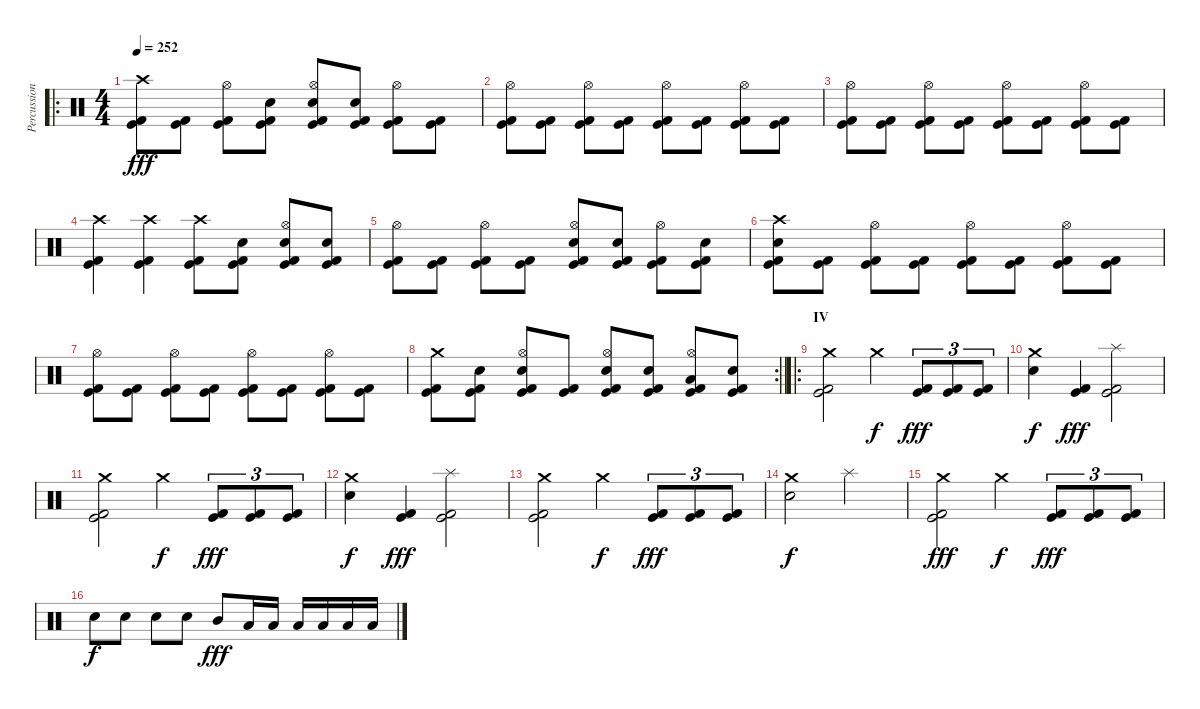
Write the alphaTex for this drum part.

\track ("Percussion" "Percussion") {mute instrument percussion}
\staff {score}
\articulation defaults
\ro
\ts (4 4)
\tempo 252
\clef neutral
\ks c
("Crash high (hit)" "Kick (hit)" "Kick (hit) 2").8{dy fff} ("Kick (hit)" "Kick (hit) 2").8 ("Hi-Hat (open)" "Kick (hit)" "Kick (hit) 2").8 ("Electric Snare (hit)" "Kick (hit)" "Kick (hit) 2").8 ("Hi-Hat (open)" "Electric Snare (hit)" "Kick (hit)" "Kick (hit) 2").8 ("Electric Snare (hit)" "Kick (hit)" "Kick (hit) 2").8 ("Hi-Hat (open)" "Kick (hit)" "Kick (hit) 2").8 ("Kick (hit)" "Kick (hit) 2").8 |
("Hi-Hat (open)" "Kick (hit)" "Kick (hit) 2").8 ("Kick (hit)" "Kick (hit) 2").8 ("Hi-Hat (open)" "Kick (hit)" "Kick (hit) 2").8 ("Kick (hit)" "Kick (hit) 2").8 ("Hi-Hat (open)" "Kick (hit)" "Kick (hit) 2").8 ("Kick (hit)" "Kick (hit) 2").8 ("Hi-Hat (open)" "Kick (hit)" "Kick (hit) 2").8 ("Kick (hit)" "Kick (hit) 2").8 |
("Hi-Hat (open)" "Kick (hit)" "Kick (hit) 2").8 ("Kick (hit)" "Kick (hit) 2").8 ("Hi-Hat (open)" "Kick (hit)" "Kick (hit) 2").8 ("Kick (hit)" "Kick (hit) 2").8 ("Hi-Hat (open)" "Kick (hit)" "Kick (hit) 2").8 ("Kick (hit)" "Kick (hit) 2").8 ("Hi-Hat (open)" "Kick (hit)" "Kick (hit) 2").8 ("Kick (hit)" "Kick (hit) 2").8 |
("Crash high (hit)" "Kick (hit)" "Kick (hit) 2").4 ("Crash high (hit)" "Kick (hit)" "Kick (hit) 2").4 ("Crash high (hit)" "Kick (hit)" "Kick (hit) 2").8 ("Electric Snare (hit)" "Kick (hit)" "Kick (hit) 2").8 ("Hi-Hat (open)" "Electric Snare (hit)" "Kick (hit)" "Kick (hit) 2").8 ("Electric Snare (hit)" "Kick (hit)" "Kick (hit) 2").8 |
("Hi-Hat (open)" "Kick (hit)" "Kick (hit) 2").8 ("Kick (hit)" "Kick (hit) 2").8 ("Hi-Hat (open)" "Kick (hit)" "Kick (hit) 2").8 ("Kick (hit)" "Kick (hit) 2").8 ("Hi-Hat (open)" "Electric Snare (hit)" "Kick (hit)" "Kick (hit) 2").8 ("Electric Snare (hit)" "Kick (hit)" "Kick (hit) 2").8 ("Hi-Hat (open)" "Kick (hit)" "Kick (hit) 2").8 ("Electric Snare (hit)" "Kick (hit)" "Kick (hit) 2").8 |
("Crash high (hit)" "Electric Snare (hit)" "Kick (hit)" "Kick (hit) 2").8 ("Kick (hit)" "Kick (hit) 2").8 ("Hi-Hat (open)" "Kick (hit)" "Kick (hit) 2").8 ("Kick (hit)" "Kick (hit) 2").8 ("Hi-Hat (open)" "Kick (hit)" "Kick (hit) 2").8 ("Kick (hit)" "Kick (hit) 2").8 ("Hi-Hat (open)" "Kick (hit)" "Kick (hit) 2").8 ("Kick (hit)" "Kick (hit) 2").8 |
("Hi-Hat (open)" "Kick (hit)" "Kick (hit) 2").8 ("Kick (hit)" "Kick (hit) 2").8 ("Hi-Hat (open)" "Kick (hit)" "Kick (hit) 2").8 ("Kick (hit)" "Kick (hit) 2").8 ("Hi-Hat (open)" "Kick (hit)" "Kick (hit) 2").8 ("Kick (hit)" "Kick (hit) 2").8 ("Hi-Hat (open)" "Kick (hit)" "Kick (hit) 2").8 ("Kick (hit)" "Kick (hit) 2").8 |
\rc 2
\barLineRight lightlight
("Crash medium (hit)" "Kick (hit)" "Kick (hit) 2").8 ("Electric Snare (hit)" "Kick (hit)" "Kick (hit) 2").8 ("Hi-Hat (open)" "Electric Snare (hit)" "Kick (hit)" "Kick (hit) 2").8 ("Kick (hit)" "Kick (hit) 2").8 ("Hi-Hat (open)" "Electric Snare (hit)" "Kick (hit)" "Kick (hit) 2").8 ("Electric Snare (hit)" "Kick (hit)" "Kick (hit) 2").8 ("Hi-Hat (open)" "Low Tom (hit)" "Kick (hit)" "Kick (hit) 2").8 ("Electric Snare (hit)" "Kick (hit)" "Kick (hit) 2").8 |
\ro
\section ("" "IV")
("Crash medium (hit)" "Kick (hit)" "Kick (hit) 2").2 "Crash medium (hit)".4{dy f} ("Kick (hit)" "Kick (hit) 2").8{tu (3 2) dy fff} ("Kick (hit)" "Kick (hit) 2").8{tu (3 2)} ("Kick (hit)" "Kick (hit) 2").8{tu (3 2)} |
("Crash medium (hit)" "Electric Snare (hit)").4{dy f} ("Kick (hit)" "Kick (hit) 2").4{dy fff} ("Splash (hit)" "Kick (hit)" "Kick (hit) 2").2 |
("Crash medium (hit)" "Kick (hit)" "Kick (hit) 2").2 "Crash medium (hit)".4{dy f} ("Kick (hit)" "Kick (hit) 2").8{tu (3 2) dy fff} ("Kick (hit)" "Kick (hit) 2").8{tu (3 2)} ("Kick (hit)" "Kick (hit) 2").8{tu (3 2)} |
("Crash medium (hit)" "Electric Snare (hit)").4{dy f} ("Kick (hit)" "Kick (hit) 2").4{dy fff} ("Splash (hit)" "Kick (hit)" "Kick (hit) 2").2 |
("Crash medium (hit)" "Kick (hit)" "Kick (hit) 2").2 "Crash medium (hit)".4{dy f} ("Kick (hit)" "Kick (hit) 2").8{tu (3 2) dy fff} ("Kick (hit)" "Kick (hit) 2").8{tu (3 2)} ("Kick (hit)" "Kick (hit) 2").8{tu (3 2)} |
("Crash medium (hit)" "Electric Snare (hit)").2{dy f} "Splash (hit)".2 |
("Crash medium (hit)" "Kick (hit)" "Kick (hit) 2").2{dy fff} "Crash medium (hit)".4{dy f} ("Kick (hit)" "Kick (hit) 2").8{tu (3 2) dy fff} ("Kick (hit)" "Kick (hit) 2").8{tu (3 2)} ("Kick (hit)" "Kick (hit) 2").8{tu (3 2)} |
"Electric Snare (hit)".8{dy f} "Electric Snare (hit)".8 "Electric Snare (hit)".8 "Electric Snare (hit)".8 "Mid Tom (hit)".8{dy fff} "Low Tom (hit)".16 "Low Tom (hit)".16 "Low Floor Tom (hit)".16 "Low Floor Tom (hit)".16 "Low Floor Tom (hit)".16 "Low Floor Tom (hit)".16
